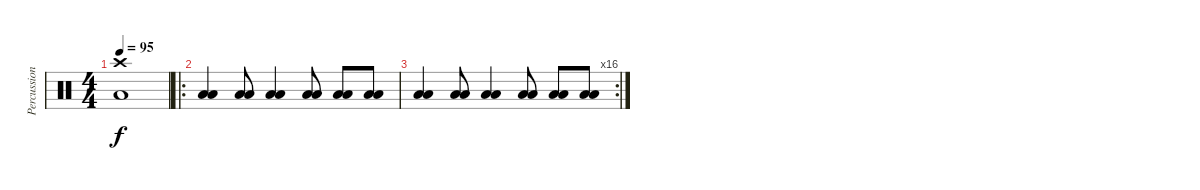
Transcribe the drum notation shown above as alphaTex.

\track ("Percussions" "Percussion") {instrument percussion}
\staff {score}
\articulation defaults
\ts (4 4)
\tempo 95
\clef neutral
\ks c
("Low Floor Tom (hit)" "Crash high (hit)").1{dy f} |
\ro
("Low Floor Tom (hit)" "Low Tom (hit)").4 ("Low Floor Tom (hit)" "Low Tom (hit)").8 ("Low Floor Tom (hit)" "Low Tom (hit)").4 ("Low Floor Tom (hit)" "Low Tom (hit)").8 ("Low Floor Tom (hit)" "Low Tom (hit)").8 ("Low Floor Tom (hit)" "Low Tom (hit)").8 |
\rc 16
("Low Floor Tom (hit)" "Low Tom (hit)").4 ("Low Floor Tom (hit)" "Low Tom (hit)").8 ("Low Floor Tom (hit)" "Low Tom (hit)").4 ("Low Floor Tom (hit)" "Low Tom (hit)").8 ("Low Floor Tom (hit)" "Low Tom (hit)").8 ("Low Floor Tom (hit)" "Low Tom (hit)").8
